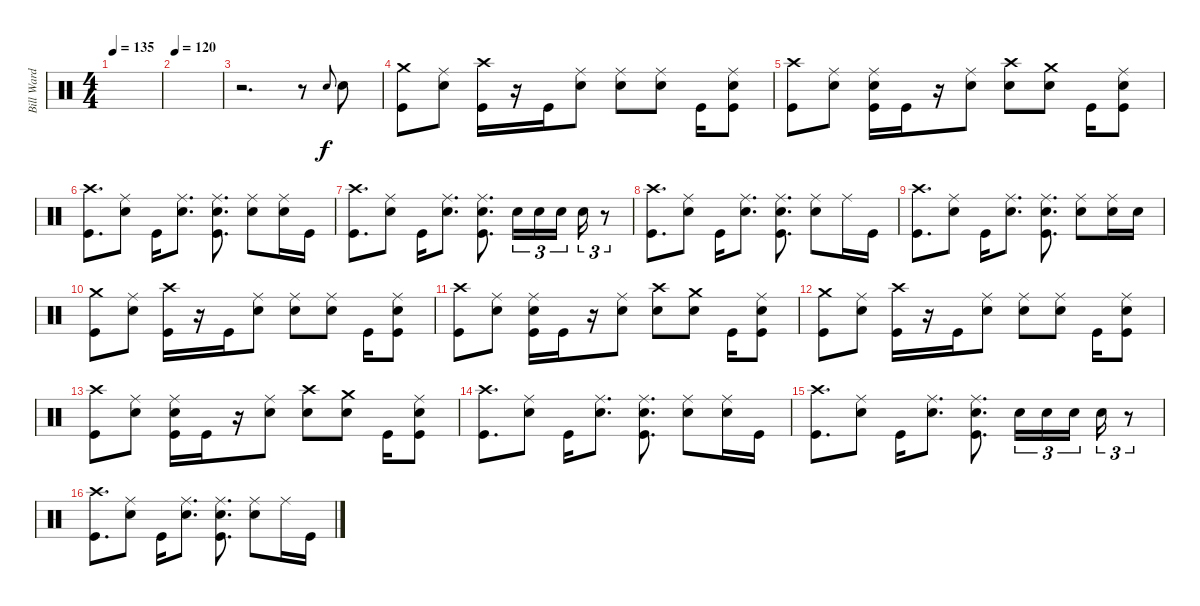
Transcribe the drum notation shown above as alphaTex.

\track ("Bill Ward" "Bill Ward") {instrument percussion}
\staff {score}
\articulation defaults
\ts (4 4)
\tempo 135
\clef neutral
\ks c
|
\tempo 120
|
r.2{d} r.8 "Electric Snare (hit)".8{gr onbeat} "Electric Snare (hit)".8 |
("Crash medium (hit)" "Kick (hit)").8 ("Ride (middle)" "Electric Snare (hit)").8 ("Crash high (hit)" "Kick (hit)").16 r.16 "Kick (hit)".16 ("Ride (middle)" "Electric Snare (hit)").8 ("Ride (middle)" "Electric Snare (hit)").8 ("Ride (middle)" "Electric Snare (hit)").8 "Kick (hit)".16 ("Ride (middle)" "Electric Snare (hit)" "Kick (hit)").8 |
("Crash high (hit)" "Kick (hit)").8 ("Ride (middle)" "Electric Snare (hit)").8 ("Ride (middle)" "Electric Snare (hit)" "Kick (hit)").16 "Kick (hit)".16 r.16 ("Ride (middle)" "Electric Snare (hit)").8 ("Crash high (hit)" "Electric Snare (hit)").8 ("Crash medium (hit)" "Electric Snare (hit)").8 "Kick (hit)".16 ("Ride (middle)" "Electric Snare (hit)" "Kick (hit)").8 |
("Crash high (hit)" "Kick (hit)").8{d} ("Ride (middle)" "Electric Snare (hit)").8 "Kick (hit)".16 ("Ride (middle)" "Electric Snare (hit)").8{d} ("Ride (middle)" "Electric Snare (hit)" "Kick (hit)").8{d} ("Ride (middle)" "Electric Snare (hit)").8 ("Ride (middle)" "Electric Snare (hit)").16 "Kick (hit)".16 |
("Crash high (hit)" "Kick (hit)").8{d} ("Ride (middle)" "Electric Snare (hit)").8 "Kick (hit)".16 ("Ride (middle)" "Electric Snare (hit)").8{d} ("Ride (middle)" "Electric Snare (hit)" "Kick (hit)").8{d} "Electric Snare (hit)".16{tu (3 2)} "Electric Snare (hit)".16{tu (3 2)} "Electric Snare (hit)".16{tu (3 2) beam splitsecondary} "Electric Snare (hit)".16{tu (3 2)} r.8{tu (3 2)} |
("Crash high (hit)" "Kick (hit)").8{d} ("Ride (middle)" "Electric Snare (hit)").8 "Kick (hit)".16 ("Ride (middle)" "Electric Snare (hit)").8{d} ("Ride (middle)" "Electric Snare (hit)" "Kick (hit)").8{d} ("Ride (middle)" "Electric Snare (hit)").8 "Ride (middle)".16 "Kick (hit)".16 |
("Crash high (hit)" "Kick (hit)").8{d} ("Ride (middle)" "Electric Snare (hit)").8 "Kick (hit)".16 ("Ride (middle)" "Electric Snare (hit)").8{d} ("Ride (middle)" "Electric Snare (hit)" "Kick (hit)").8{d} ("Ride (middle)" "Electric Snare (hit)").8 ("Ride (middle)" "Electric Snare (hit)").16 "Electric Snare (hit)".16 |
("Crash medium (hit)" "Kick (hit)").8 ("Ride (middle)" "Electric Snare (hit)").8 ("Crash high (hit)" "Kick (hit)").16 r.16 "Kick (hit)".16 ("Ride (middle)" "Electric Snare (hit)").8 ("Ride (middle)" "Electric Snare (hit)").8 ("Ride (middle)" "Electric Snare (hit)").8 "Kick (hit)".16 ("Ride (middle)" "Electric Snare (hit)" "Kick (hit)").8 |
("Crash high (hit)" "Kick (hit)").8 ("Ride (middle)" "Electric Snare (hit)").8 ("Ride (middle)" "Electric Snare (hit)" "Kick (hit)").16 "Kick (hit)".16 r.16 ("Ride (middle)" "Electric Snare (hit)").8 ("Crash high (hit)" "Electric Snare (hit)").8 ("Crash medium (hit)" "Electric Snare (hit)").8 "Kick (hit)".16 ("Ride (middle)" "Electric Snare (hit)" "Kick (hit)").8 |
("Crash medium (hit)" "Kick (hit)").8 ("Ride (middle)" "Electric Snare (hit)").8 ("Crash high (hit)" "Kick (hit)").16 r.16 "Kick (hit)".16 ("Ride (middle)" "Electric Snare (hit)").8 ("Ride (middle)" "Electric Snare (hit)").8 ("Ride (middle)" "Electric Snare (hit)").8 "Kick (hit)".16 ("Ride (middle)" "Electric Snare (hit)" "Kick (hit)").8 |
("Crash high (hit)" "Kick (hit)").8 ("Ride (middle)" "Electric Snare (hit)").8 ("Ride (middle)" "Electric Snare (hit)" "Kick (hit)").16 "Kick (hit)".16 r.16 ("Ride (middle)" "Electric Snare (hit)").8 ("Crash high (hit)" "Electric Snare (hit)").8 ("Crash medium (hit)" "Electric Snare (hit)").8 "Kick (hit)".16 ("Ride (middle)" "Electric Snare (hit)" "Kick (hit)").8 |
("Crash high (hit)" "Kick (hit)").8{d} ("Ride (middle)" "Electric Snare (hit)").8 "Kick (hit)".16 ("Ride (middle)" "Electric Snare (hit)").8{d} ("Ride (middle)" "Electric Snare (hit)" "Kick (hit)").8{d} ("Ride (middle)" "Electric Snare (hit)").8 ("Ride (middle)" "Electric Snare (hit)").16 "Kick (hit)".16 |
("Crash high (hit)" "Kick (hit)").8{d} ("Ride (middle)" "Electric Snare (hit)").8 "Kick (hit)".16 ("Ride (middle)" "Electric Snare (hit)").8{d} ("Ride (middle)" "Electric Snare (hit)" "Kick (hit)").8{d} "Electric Snare (hit)".16{tu (3 2)} "Electric Snare (hit)".16{tu (3 2)} "Electric Snare (hit)".16{tu (3 2) beam splitsecondary} "Electric Snare (hit)".16{tu (3 2)} r.8{tu (3 2)} |
("Crash high (hit)" "Kick (hit)").8{d} ("Ride (middle)" "Electric Snare (hit)").8 "Kick (hit)".16 ("Ride (middle)" "Electric Snare (hit)").8{d} ("Ride (middle)" "Electric Snare (hit)" "Kick (hit)").8{d} ("Ride (middle)" "Electric Snare (hit)").8 "Ride (middle)".16 "Kick (hit)".16
